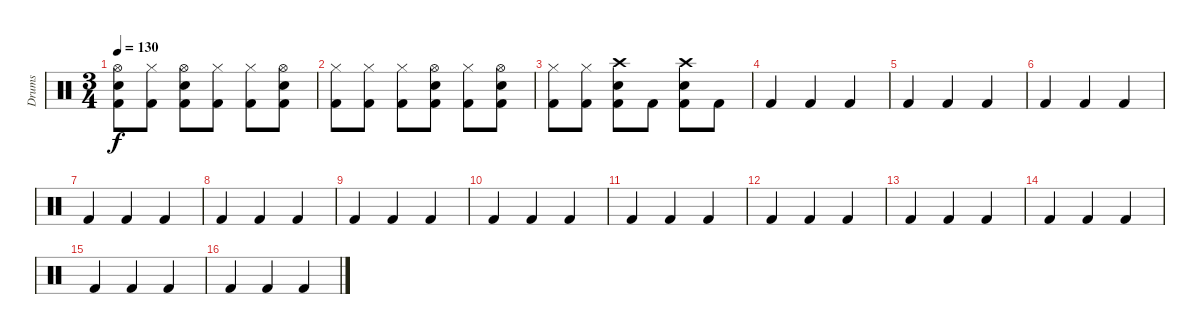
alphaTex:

\track ("Drums" "Drums") {instrument percussion}
\staff {score}
\articulation defaults
\ts (3 4)
\tempo 130
\clef neutral
\ks c
("Hi-Hat (open)" "Snare (hit) 2" "Kick (hit) 2").8{dy f} ("Hi-Hat (closed)" "Kick (hit) 2").8 ("Hi-Hat (open)" "Snare (hit) 2" "Kick (hit) 2").8 ("Hi-Hat (closed)" "Kick (hit) 2").8 ("Hi-Hat (closed)" "Kick (hit) 2").8 ("Hi-Hat (open)" "Snare (hit) 2" "Kick (hit) 2").8 |
("Hi-Hat (closed)" "Kick (hit) 2").8 ("Hi-Hat (closed)" "Kick (hit) 2").8 ("Hi-Hat (closed)" "Kick (hit) 2").8 ("Hi-Hat (open)" "Snare (hit) 2" "Kick (hit) 2").8 ("Hi-Hat (closed)" "Kick (hit) 2").8 ("Hi-Hat (open)" "Snare (hit) 2" "Kick (hit) 2").8 |
("Hi-Hat (closed)" "Kick (hit) 2").8 ("Hi-Hat (closed)" "Kick (hit) 2").8 ("Crash high (hit)" "Snare (hit) 2" "Kick (hit) 2").8 "Kick (hit) 2".8 ("Crash high (hit)" "Snare (hit) 2" "Kick (hit) 2").8 "Kick (hit) 2".8 |
"Kick (hit) 2".4 "Kick (hit) 2".4 "Kick (hit) 2".4 |
"Kick (hit) 2".4 "Kick (hit) 2".4 "Kick (hit) 2".4 |
"Kick (hit) 2".4 "Kick (hit) 2".4 "Kick (hit) 2".4 |
"Kick (hit) 2".4 "Kick (hit) 2".4 "Kick (hit) 2".4 |
"Kick (hit) 2".4 "Kick (hit) 2".4 "Kick (hit) 2".4 |
"Kick (hit) 2".4 "Kick (hit) 2".4 "Kick (hit) 2".4 |
"Kick (hit) 2".4 "Kick (hit) 2".4 "Kick (hit) 2".4 |
"Kick (hit) 2".4 "Kick (hit) 2".4 "Kick (hit) 2".4 |
"Kick (hit) 2".4 "Kick (hit) 2".4 "Kick (hit) 2".4 |
"Kick (hit) 2".4 "Kick (hit) 2".4 "Kick (hit) 2".4 |
"Kick (hit) 2".4 "Kick (hit) 2".4 "Kick (hit) 2".4 |
"Kick (hit) 2".4 "Kick (hit) 2".4 "Kick (hit) 2".4 |
"Kick (hit) 2".4 "Kick (hit) 2".4 "Kick (hit) 2".4
